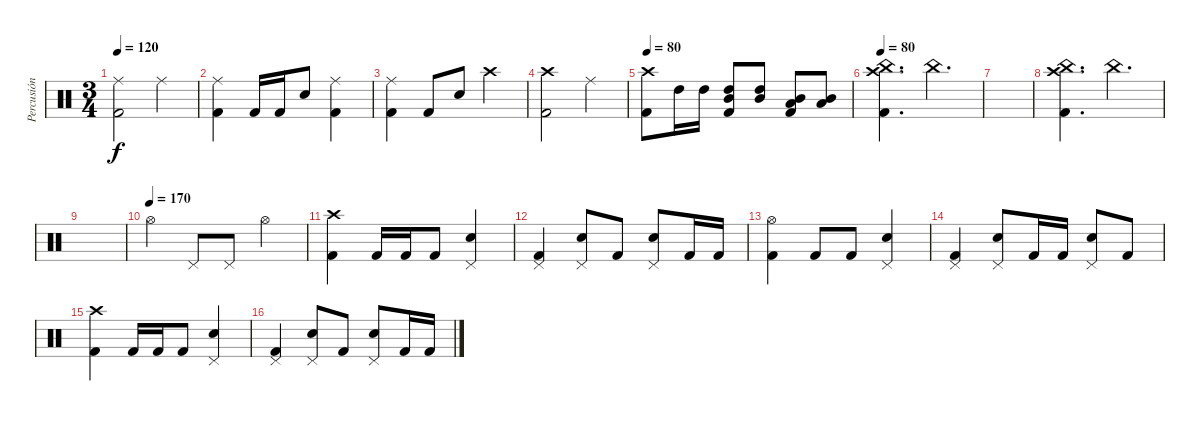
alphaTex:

\track ("Percusión" "Percusión") {instrument percussion}
\staff {score}
\articulation defaults
\ts (3 4)
\tempo 120
\clef neutral
\ks c
("Ride (middle)" "Kick (hit) 2").2{dy f} "Ride (middle)".4 |
("Ride (middle)" "Kick (hit) 2").4 "Kick (hit) 2".16 "Kick (hit) 2".16 "Snare (hit) 2".8 ("Ride (middle)" "Kick (hit) 2").4 |
("Ride (middle)" "Kick (hit) 2").4 "Kick (hit) 2".8 "Snare (hit) 2".8 "Crash high (hit)".4 |
("Crash high (hit)" "Kick (hit) 2").2 "Ride (middle)".4 |
\tempo 80
("Crash high (hit)" "Kick (hit) 2").8 "High Tom (hit)".16 "High Tom (hit)".16 ("Mid Tom (hit)" "High Tom (hit)" "Kick (hit) 2").8 ("Mid Tom (hit)" "High Tom (hit)").8 ("Mid Tom (hit)" "Low Tom (hit)" "Kick (hit) 2").8 ("Mid Tom (hit)" "Low Tom (hit)").8 |
\tempo 80
("Crash high (hit)" "China (hit)" "Kick (hit) 2").4{d} "China (hit)".4{d} |
|
("Crash high (hit)" "China (hit)" "Kick (hit) 2").4{d} "China (hit)".4{d} |
|
\tempo (170)
"Hi-Hat (open)".4 "Pedal Hi-Hat (hit)".8 "Pedal Hi-Hat (hit)".8 "Hi-Hat (open)".4 |
("Crash high (hit)" "Kick (hit) 2").4 "Kick (hit) 2".16 "Kick (hit) 2".16 "Kick (hit) 2".8 ("Pedal Hi-Hat (hit)" "Snare (hit) 2").4 |
("Pedal Hi-Hat (hit)" "Kick (hit) 2").4 ("Pedal Hi-Hat (hit)" "Snare (hit) 2").8 "Kick (hit) 2".8 ("Pedal Hi-Hat (hit)" "Snare (hit) 2").8 "Kick (hit) 2".16 "Kick (hit) 2".16 |
("Hi-Hat (open)" "Kick (hit) 2").4 "Kick (hit) 2".8 "Kick (hit) 2".8 ("Pedal Hi-Hat (hit)" "Snare (hit) 2").4 |
("Pedal Hi-Hat (hit)" "Kick (hit) 2").4 ("Pedal Hi-Hat (hit)" "Snare (hit) 2").8 "Kick (hit) 2".16 "Kick (hit) 2".16 ("Pedal Hi-Hat (hit)" "Snare (hit) 2").8 "Kick (hit) 2".8 |
("Crash high (hit)" "Kick (hit) 2").4 "Kick (hit) 2".16 "Kick (hit) 2".16 "Kick (hit) 2".8 ("Pedal Hi-Hat (hit)" "Snare (hit) 2").4 |
("Pedal Hi-Hat (hit)" "Kick (hit) 2").4 ("Pedal Hi-Hat (hit)" "Snare (hit) 2").8 "Kick (hit) 2".8 ("Pedal Hi-Hat (hit)" "Snare (hit) 2").8 "Kick (hit) 2".16 "Kick (hit) 2".16
